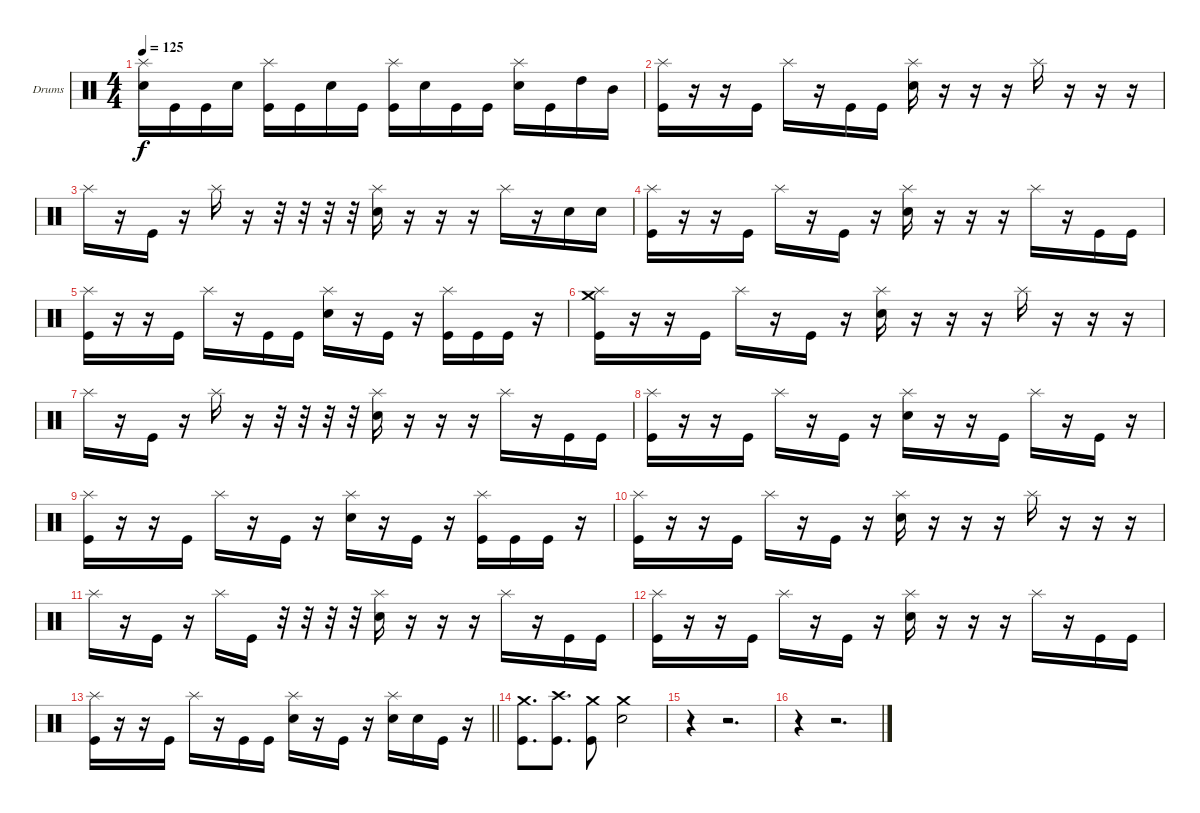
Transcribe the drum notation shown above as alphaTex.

\bracketExtendMode groupsimilarinstruments
\firstSystemTrackNameOrientation horizontal
\otherSystemsTrackNameOrientation horizontal
\track ("Drumkit" "Drums") {instrument percussion}
\staff {score}
\articulation defaults
\ts (4 4)
\tempo 125
\clef neutral
\ks c
("Snare (hit) 2" "Splash (hit)").16{dy f} "Kick (hit)".16 "Kick (hit)".16 "Snare (hit) 2".16 ("Kick (hit)" "Splash (hit)").16 "Kick (hit)".16 "Snare (hit) 2".16 "Kick (hit)".16 ("Kick (hit)" "Splash (hit)").16 "Snare (hit) 2".16 "Kick (hit)".16 "Kick (hit)".16 ("Snare (hit) 2" "Splash (hit)").16 "Kick (hit)".16 "High Tom (hit)".16 "Mid Tom (hit)".16 |
("Kick (hit)" "Splash (hit)").16 r.16 r.16 "Kick (hit)".16 "Splash (hit)".16 r.16 "Kick (hit)".16 "Kick (hit)".16 ("Snare (hit) 2" "Splash (hit)").16 r.16 r.16 r.16 "Splash (hit)".16 r.16 r.16 r.16 |
"Splash (hit)".16 r.16 "Kick (hit)".16 r.16 "Splash (hit)".16 r.16 r.32 r.32 r.32 r.32 ("Snare (hit) 2" "Splash (hit)").16 r.16 r.16 r.16 "Splash (hit)".16 r.16 "Snare (hit) 2".16 "Snare (hit) 2".16 |
("Kick (hit)" "Splash (hit)").16 r.16 r.16 "Kick (hit)".16 "Splash (hit)".16 r.16 "Kick (hit)".16 r.16 ("Snare (hit) 2" "Splash (hit)").16 r.16 r.16 r.16 "Splash (hit)".16 r.16 "Kick (hit)".16 "Kick (hit)".16 |
("Kick (hit)" "Splash (hit)").16 r.16 r.16 "Kick (hit)".16 "Splash (hit)".16 r.16 "Kick (hit)".16 "Kick (hit)".16 ("Snare (hit) 2" "Splash (hit)").16 r.16 "Kick (hit)".16 r.16 ("Kick (hit)" "Splash (hit)").16 "Kick (hit)".16 "Kick (hit)".16 r.16 |
("Crash medium (hit)" "Kick (hit)" "Splash (hit)").16 r.16 r.16 "Kick (hit)".16 "Splash (hit)".16 r.16 "Kick (hit)".16 r.16 ("Snare (hit) 2" "Splash (hit)").16 r.16 r.16 r.16 "Splash (hit)".16 r.16 r.16 r.16 |
"Splash (hit)".16 r.16 "Kick (hit)".16 r.16 "Splash (hit)".16 r.16 r.32 r.32 r.32 r.32 ("Snare (hit) 2" "Splash (hit)").16 r.16 r.16 r.16 "Splash (hit)".16 r.16 "Kick (hit)".16 "Kick (hit)".16 |
("Kick (hit)" "Splash (hit)").16 r.16 r.16 "Kick (hit)".16 "Splash (hit)".16 r.16 "Kick (hit)".16 r.16 ("Snare (hit) 2" "Splash (hit)").16 r.16 r.16 "Kick (hit)".16 "Splash (hit)".16 r.16 "Kick (hit)".16 r.16 |
("Kick (hit)" "Splash (hit)").16 r.16 r.16 "Kick (hit)".16 "Splash (hit)".16 r.16 "Kick (hit)".16 r.16 ("Snare (hit) 2" "Splash (hit)").16 r.16 "Kick (hit)".16 r.16 ("Kick (hit)" "Splash (hit)").16 "Kick (hit)".16 "Kick (hit)".16 r.16 |
("Kick (hit)" "Splash (hit)").16 r.16 r.16 "Kick (hit)".16 "Splash (hit)".16 r.16 "Kick (hit)".16 r.16 ("Snare (hit) 2" "Splash (hit)").16 r.16 r.16 r.16 "Splash (hit)".16 r.16 r.16 r.16 |
"Splash (hit)".16 r.16 "Kick (hit)".16 r.16 "Splash (hit)".16 "Kick (hit)".16 r.32 r.32 r.32 r.32 ("Snare (hit) 2" "Splash (hit)").16 r.16 r.16 r.16 "Splash (hit)".16 r.16 "Kick (hit)".16 "Kick (hit)".16 |
("Kick (hit)" "Splash (hit)").16 r.16 r.16 "Kick (hit)".16 "Splash (hit)".16 r.16 "Kick (hit)".16 r.16 ("Snare (hit) 2" "Splash (hit)").16 r.16 r.16 r.16 "Splash (hit)".16 r.16 "Kick (hit)".16 "Kick (hit)".16 |
\barLineRight lightlight
("Kick (hit)" "Splash (hit)").16 r.16 r.16 "Kick (hit)".16 "Splash (hit)".16 r.16 "Kick (hit)".16 "Kick (hit)".16 ("Snare (hit) 2" "Splash (hit)").16 r.16 "Kick (hit)".16 r.16 ("Snare (hit) 2" "Splash (hit)").16 "Snare (hit) 2".16 "Kick (hit)".16 r.16 |
("Crash medium (hit)" "Kick (hit)").8{d} ("Crash high (hit)" "Kick (hit)").8{d} ("Crash medium (hit)" "Kick (hit)").8 ("Crash medium (hit)" "Snare (hit) 2").2 |
r.4 r.2{d} |
r.4 r.2{d}
